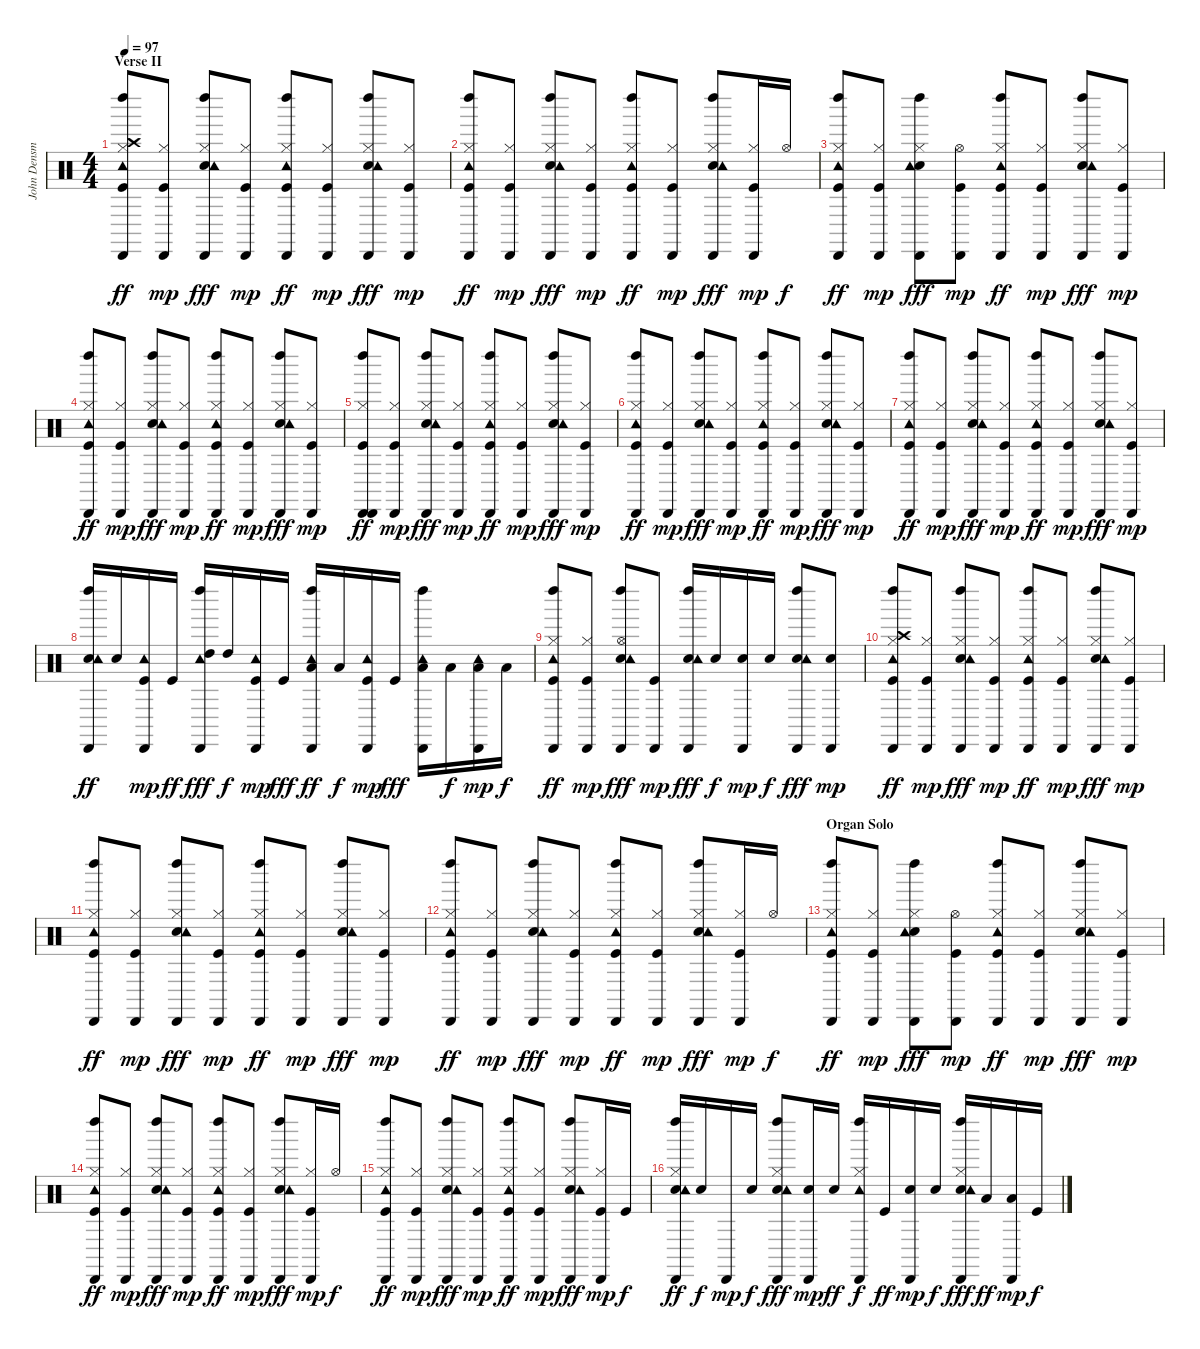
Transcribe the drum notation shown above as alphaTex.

\track ("John Densmore" "John Densm") {instrument percussion}
\staff {score}
\articulation defaults
\ts (4 4)
\section ("" "Verse II")
\tempo 97
\clef neutral
\ks c
("Kick (hit)" "Hi-Hat (closed)" "Crash high (hit)" "Tambourine (hit)" "Left Maraca (hit)" "Cabasa (hit)").8{dy ff} ("Kick (hit)" "Hi-Hat (closed)" "Cabasa (hit)").8{dy mp} ("Snare (hit) 2" "Hi-Hat (closed)" "Tambourine (hit)" "Left Maraca (hit)" "Cabasa (hit)").8{dy fff} ("Kick (hit)" "Hi-Hat (closed)" "Cabasa (hit)").8{dy mp} ("Kick (hit)" "Hi-Hat (closed)" "Tambourine (hit)" "Left Maraca (hit)" "Cabasa (hit)").8{dy ff} ("Kick (hit)" "Hi-Hat (closed)" "Cabasa (hit)").8{dy mp} ("Snare (hit) 2" "Hi-Hat (closed)" "Tambourine (hit)" "Left Maraca (hit)" "Cabasa (hit)").8{dy fff} ("Kick (hit)" "Hi-Hat (closed)" "Cabasa (hit)").8{dy mp} |
("Kick (hit)" "Hi-Hat (closed)" "Tambourine (hit)" "Left Maraca (hit)" "Cabasa (hit)").8{dy ff} ("Kick (hit)" "Hi-Hat (closed)" "Cabasa (hit)").8{dy mp} ("Snare (hit) 2" "Hi-Hat (closed)" "Tambourine (hit)" "Left Maraca (hit)" "Cabasa (hit)").8{dy fff} ("Kick (hit)" "Hi-Hat (closed)" "Cabasa (hit)").8{dy mp} ("Kick (hit)" "Hi-Hat (closed)" "Tambourine (hit)" "Left Maraca (hit)" "Cabasa (hit)").8{dy ff} ("Kick (hit)" "Hi-Hat (closed)" "Cabasa (hit)").8{dy mp} ("Snare (hit) 2" "Hi-Hat (closed)" "Tambourine (hit)" "Left Maraca (hit)" "Cabasa (hit)").8{dy fff} ("Kick (hit)" "Hi-Hat (closed)" "Cabasa (hit)").16{dy mp} "Hi-Hat (open)".16{dy f} |
("Kick (hit)" "Hi-Hat (closed)" "Tambourine (hit)" "Left Maraca (hit)" "Cabasa (hit)").8{dy ff} ("Kick (hit)" "Hi-Hat (closed)" "Cabasa (hit)").8{dy mp} ("Snare (hit) 2" "Hi-Hat (closed)" "Tambourine (hit)" "Left Maraca (hit)" "Cabasa (hit)").8{dy fff} ("Kick (hit)" "Hi-Hat (open)" "Cabasa (hit)").8{dy mp} ("Kick (hit)" "Hi-Hat (closed)" "Tambourine (hit)" "Left Maraca (hit)" "Cabasa (hit)").8{dy ff} ("Kick (hit)" "Hi-Hat (closed)" "Cabasa (hit)").8{dy mp} ("Snare (hit) 2" "Hi-Hat (closed)" "Tambourine (hit)" "Left Maraca (hit)" "Cabasa (hit)").8{dy fff} ("Kick (hit)" "Hi-Hat (closed)" "Cabasa (hit)").8{dy mp} |
("Kick (hit)" "Hi-Hat (closed)" "Tambourine (hit)" "Left Maraca (hit)" "Cabasa (hit)").8{dy ff} ("Kick (hit)" "Hi-Hat (closed)" "Cabasa (hit)").8{dy mp} ("Snare (hit) 2" "Hi-Hat (closed)" "Tambourine (hit)" "Left Maraca (hit)" "Cabasa (hit)").8{dy fff} ("Kick (hit)" "Hi-Hat (closed)" "Cabasa (hit)").8{dy mp} ("Kick (hit)" "Hi-Hat (closed)" "Tambourine (hit)" "Left Maraca (hit)" "Cabasa (hit)").8{dy ff} ("Kick (hit)" "Hi-Hat (closed)" "Cabasa (hit)").8{dy mp} ("Snare (hit) 2" "Hi-Hat (closed)" "Tambourine (hit)" "Left Maraca (hit)" "Cabasa (hit)").8{dy fff} ("Kick (hit)" "Hi-Hat (closed)" "Cabasa (hit)").8{dy mp} |
("Kick (hit)" "Hi-Hat (closed)" "Cabasa (hit)" "Left Maraca (hit)" "Cabasa (hit)").8{dy ff} ("Kick (hit)" "Hi-Hat (closed)" "Cabasa (hit)").8{dy mp} ("Snare (hit) 2" "Hi-Hat (closed)" "Tambourine (hit)" "Left Maraca (hit)" "Cabasa (hit)").8{dy fff} ("Kick (hit)" "Hi-Hat (closed)" "Cabasa (hit)").8{dy mp} ("Kick (hit)" "Hi-Hat (closed)" "Tambourine (hit)" "Left Maraca (hit)" "Cabasa (hit)").8{dy ff} ("Kick (hit)" "Hi-Hat (closed)" "Cabasa (hit)").8{dy mp} ("Snare (hit) 2" "Hi-Hat (closed)" "Tambourine (hit)" "Left Maraca (hit)" "Cabasa (hit)").8{dy fff} ("Kick (hit)" "Hi-Hat (closed)" "Cabasa (hit)").8{dy mp} |
("Kick (hit)" "Hi-Hat (closed)" "Tambourine (hit)" "Left Maraca (hit)" "Cabasa (hit)").8{dy ff} ("Kick (hit)" "Hi-Hat (closed)" "Cabasa (hit)").8{dy mp} ("Snare (hit) 2" "Hi-Hat (closed)" "Tambourine (hit)" "Left Maraca (hit)" "Cabasa (hit)").8{dy fff} ("Kick (hit)" "Hi-Hat (closed)" "Cabasa (hit)").8{dy mp} ("Kick (hit)" "Hi-Hat (closed)" "Tambourine (hit)" "Left Maraca (hit)" "Cabasa (hit)").8{dy ff} ("Kick (hit)" "Hi-Hat (closed)" "Cabasa (hit)").8{dy mp} ("Snare (hit) 2" "Hi-Hat (closed)" "Tambourine (hit)" "Left Maraca (hit)" "Cabasa (hit)").8{dy fff} ("Kick (hit)" "Hi-Hat (closed)" "Cabasa (hit)").8{dy mp} |
("Kick (hit)" "Hi-Hat (closed)" "Tambourine (hit)" "Left Maraca (hit)" "Cabasa (hit)").8{dy ff} ("Kick (hit)" "Hi-Hat (closed)" "Cabasa (hit)").8{dy mp} ("Snare (hit) 2" "Hi-Hat (closed)" "Tambourine (hit)" "Left Maraca (hit)" "Cabasa (hit)").8{dy fff} ("Kick (hit)" "Hi-Hat (closed)" "Cabasa (hit)").8{dy mp} ("Kick (hit)" "Hi-Hat (closed)" "Tambourine (hit)" "Left Maraca (hit)" "Cabasa (hit)").8{dy ff} ("Kick (hit)" "Hi-Hat (closed)" "Cabasa (hit)").8{dy mp} ("Snare (hit) 2" "Hi-Hat (closed)" "Tambourine (hit)" "Left Maraca (hit)" "Cabasa (hit)").8{dy fff} ("Kick (hit)" "Hi-Hat (closed)" "Cabasa (hit)").8{dy mp} |
("Snare (hit) 2" "Tambourine (hit)" "Left Maraca (hit)" "Cabasa (hit)").16{dy ff} "Snare (hit) 2".16 ("Kick (hit)" "Tambourine (hit)" "Cabasa (hit)").16{dy mp} "Kick (hit)".16{dy ff} ("High Tom (hit)" "Tambourine (hit)" "Left Maraca (hit)" "Cabasa (hit)").16{dy fff} "High Tom (hit)".16{dy f} ("Kick (hit)" "Tambourine (hit)" "Cabasa (hit)").16{dy mp} "Kick (hit)".16{dy fff} ("Low Tom (hit)" "Tambourine (hit)" "Left Maraca (hit)" "Cabasa (hit)").16{dy ff} "Low Tom (hit)".16{dy f} ("Kick (hit)" "Tambourine (hit)" "Cabasa (hit)").16{dy mp} "Kick (hit)".16{dy fff} ("Low Floor Tom (hit)" "Tambourine (hit)" "Left Maraca (hit)" "Cabasa (hit)").16 "Low Floor Tom (hit)".16{dy f} ("Low Floor Tom (hit)" "Tambourine (hit)" "Cabasa (hit)").16{dy mp} "Low Floor Tom (hit)".16{dy f} |
("Kick (hit)" "Hi-Hat (closed)" "Tambourine (hit)" "Left Maraca (hit)" "Cabasa (hit)").8{dy ff} ("Kick (hit)" "Hi-Hat (closed)" "Cabasa (hit)").8{dy mp} ("Snare (hit) 2" "Hi-Hat (open)" "Tambourine (hit)" "Left Maraca (hit)" "Cabasa (hit)").8{dy fff} ("Kick (hit)" "Cabasa (hit)").8{dy mp} ("Snare (hit) 2" "Tambourine (hit)" "Left Maraca (hit)" "Cabasa (hit)").16{dy fff} "Snare (hit) 2".16{dy f} ("Snare (hit) 2" "Cabasa (hit)").16{dy mp} "Snare (hit) 2".16{dy f} ("Snare (hit) 2" "Tambourine (hit)" "Left Maraca (hit)" "Cabasa (hit)").8{dy fff} ("Snare (hit) 2" "Cabasa (hit)").8{dy mp} |
("Kick (hit)" "Hi-Hat (closed)" "Crash high (hit)" "Tambourine (hit)" "Left Maraca (hit)" "Cabasa (hit)").8{dy ff} ("Kick (hit)" "Hi-Hat (closed)" "Cabasa (hit)").8{dy mp} ("Snare (hit) 2" "Hi-Hat (closed)" "Tambourine (hit)" "Left Maraca (hit)" "Cabasa (hit)").8{dy fff} ("Kick (hit)" "Hi-Hat (closed)" "Cabasa (hit)").8{dy mp} ("Kick (hit)" "Hi-Hat (closed)" "Tambourine (hit)" "Left Maraca (hit)" "Cabasa (hit)").8{dy ff} ("Kick (hit)" "Hi-Hat (closed)" "Cabasa (hit)").8{dy mp} ("Snare (hit) 2" "Hi-Hat (closed)" "Tambourine (hit)" "Left Maraca (hit)" "Cabasa (hit)").8{dy fff} ("Kick (hit)" "Hi-Hat (closed)" "Cabasa (hit)").8{dy mp} |
("Kick (hit)" "Hi-Hat (closed)" "Tambourine (hit)" "Left Maraca (hit)" "Cabasa (hit)").8{dy ff} ("Kick (hit)" "Hi-Hat (closed)" "Cabasa (hit)").8{dy mp} ("Snare (hit) 2" "Hi-Hat (closed)" "Tambourine (hit)" "Left Maraca (hit)" "Cabasa (hit)").8{dy fff} ("Kick (hit)" "Hi-Hat (closed)" "Cabasa (hit)").8{dy mp} ("Kick (hit)" "Hi-Hat (closed)" "Tambourine (hit)" "Left Maraca (hit)" "Cabasa (hit)").8{dy ff} ("Kick (hit)" "Hi-Hat (closed)" "Cabasa (hit)").8{dy mp} ("Snare (hit) 2" "Hi-Hat (closed)" "Tambourine (hit)" "Left Maraca (hit)" "Cabasa (hit)").8{dy fff} ("Kick (hit)" "Hi-Hat (closed)" "Cabasa (hit)").8{dy mp} |
("Kick (hit)" "Hi-Hat (closed)" "Tambourine (hit)" "Left Maraca (hit)" "Cabasa (hit)").8{dy ff} ("Kick (hit)" "Hi-Hat (closed)" "Cabasa (hit)").8{dy mp} ("Snare (hit) 2" "Hi-Hat (closed)" "Tambourine (hit)" "Left Maraca (hit)" "Cabasa (hit)").8{dy fff} ("Kick (hit)" "Hi-Hat (closed)" "Cabasa (hit)").8{dy mp} ("Kick (hit)" "Hi-Hat (closed)" "Tambourine (hit)" "Left Maraca (hit)" "Cabasa (hit)").8{dy ff} ("Kick (hit)" "Hi-Hat (closed)" "Cabasa (hit)").8{dy mp} ("Snare (hit) 2" "Hi-Hat (closed)" "Tambourine (hit)" "Left Maraca (hit)" "Cabasa (hit)").8{dy fff} ("Kick (hit)" "Hi-Hat (closed)" "Cabasa (hit)").16{dy mp} "Hi-Hat (open)".16{dy f} |
\section ("" "Organ Solo")
("Kick (hit)" "Hi-Hat (closed)" "Tambourine (hit)" "Left Maraca (hit)" "Cabasa (hit)").8{dy ff} ("Kick (hit)" "Hi-Hat (closed)" "Cabasa (hit)").8{dy mp} ("Snare (hit) 2" "Hi-Hat (closed)" "Tambourine (hit)" "Left Maraca (hit)" "Cabasa (hit)").8{dy fff} ("Kick (hit)" "Hi-Hat (open)" "Cabasa (hit)").8{dy mp} ("Kick (hit)" "Hi-Hat (closed)" "Tambourine (hit)" "Left Maraca (hit)" "Cabasa (hit)").8{dy ff} ("Kick (hit)" "Hi-Hat (closed)" "Cabasa (hit)").8{dy mp} ("Snare (hit) 2" "Hi-Hat (closed)" "Tambourine (hit)" "Left Maraca (hit)" "Cabasa (hit)").8{dy fff} ("Kick (hit)" "Hi-Hat (closed)" "Cabasa (hit)").8{dy mp} |
("Kick (hit)" "Hi-Hat (closed)" "Tambourine (hit)" "Left Maraca (hit)" "Cabasa (hit)").8{dy ff} ("Kick (hit)" "Hi-Hat (closed)" "Cabasa (hit)").8{dy mp} ("Snare (hit) 2" "Hi-Hat (closed)" "Tambourine (hit)" "Left Maraca (hit)" "Cabasa (hit)").8{dy fff} ("Kick (hit)" "Hi-Hat (closed)" "Cabasa (hit)").8{dy mp} ("Kick (hit)" "Hi-Hat (closed)" "Tambourine (hit)" "Left Maraca (hit)" "Cabasa (hit)").8{dy ff} ("Kick (hit)" "Hi-Hat (closed)" "Cabasa (hit)").8{dy mp} ("Snare (hit) 2" "Hi-Hat (closed)" "Tambourine (hit)" "Left Maraca (hit)" "Cabasa (hit)").8{dy fff} ("Kick (hit)" "Hi-Hat (closed)" "Cabasa (hit)").16{dy mp} "Hi-Hat (open)".16{dy f} |
("Kick (hit)" "Hi-Hat (closed)" "Tambourine (hit)" "Left Maraca (hit)" "Cabasa (hit)").8{dy ff} ("Kick (hit)" "Hi-Hat (closed)" "Cabasa (hit)").8{dy mp} ("Snare (hit) 2" "Hi-Hat (closed)" "Tambourine (hit)" "Left Maraca (hit)" "Cabasa (hit)").8{dy fff} ("Kick (hit)" "Hi-Hat (closed)" "Cabasa (hit)").8{dy mp} ("Kick (hit)" "Hi-Hat (closed)" "Tambourine (hit)" "Left Maraca (hit)" "Cabasa (hit)").8{dy ff} ("Kick (hit)" "Hi-Hat (closed)" "Cabasa (hit)").8{dy mp} ("Snare (hit) 2" "Hi-Hat (closed)" "Tambourine (hit)" "Left Maraca (hit)" "Cabasa (hit)").8{dy fff} ("Kick (hit)" "Hi-Hat (closed)" "Cabasa (hit)").16{dy mp} "Kick (hit)".16{dy f} |
("Snare (hit) 2" "Hi-Hat (closed)" "Tambourine (hit)" "Left Maraca (hit)" "Cabasa (hit)").16{dy ff} "Snare (hit) 2".16{dy f} "Cabasa (hit)".16{dy mp} "Snare (hit) 2".16{dy f} ("Snare (hit) 2" "Hi-Hat (closed)" "Tambourine (hit)" "Left Maraca (hit)" "Cabasa (hit)").8{dy fff} ("Snare (hit) 2" "Cabasa (hit)").16{dy mp} "Snare (hit) 2".16{dy ff} ("Hi-Hat (closed)" "Tambourine (hit)" "Left Maraca (hit)" "Cabasa (hit)").16{dy f} "Kick (hit)".16{dy ff} ("Snare (hit) 2" "Cabasa (hit)").16{dy mp} "Snare (hit) 2".16{dy f} ("Snare (hit) 2" "Hi-Hat (closed)" "Tambourine (hit)" "Left Maraca (hit)" "Cabasa (hit)").16{dy fff} "Low Tom (hit)".16{dy ff} ("Low Floor Tom (hit)" "Cabasa (hit)").16{dy mp} "Kick (hit)".16{dy f}
